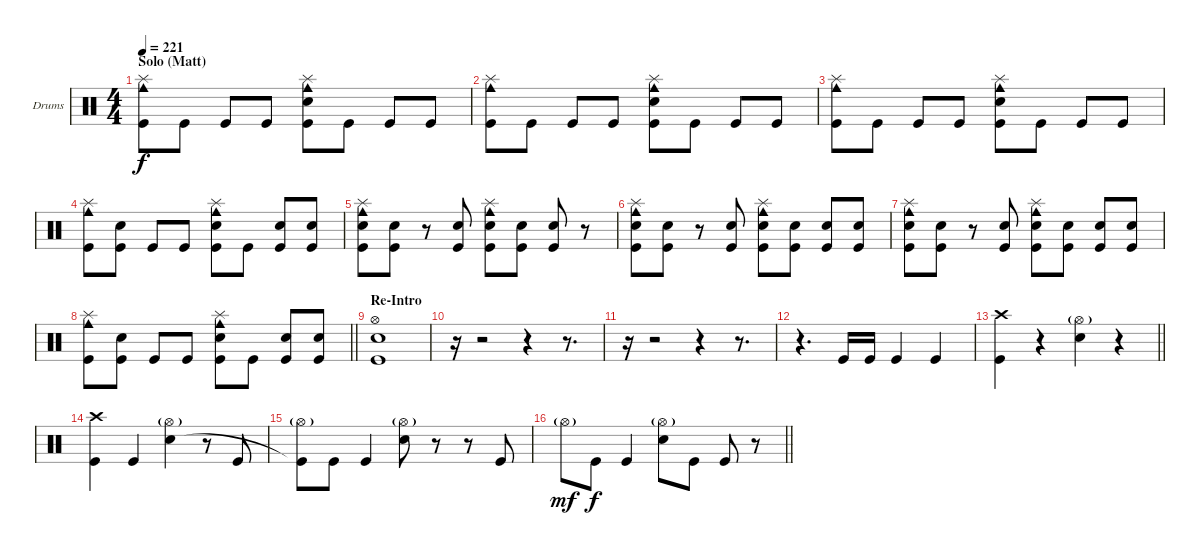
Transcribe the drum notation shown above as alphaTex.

\bracketExtendMode groupsimilarinstruments
\firstSystemTrackNameOrientation horizontal
\otherSystemsTrackNameOrientation horizontal
\track ("Drumkit" "Drums") {instrument percussion}
\staff {score}
\articulation defaults
\ts (4 4)
\section ("" "Solo (Matt)")
\tempo 221
\clef neutral
\ks c
("Splash (hit)" "Cowbell medium (hit)" "Kick (hit)").8{dy f} "Kick (hit)".8 "Kick (hit)".8 "Kick (hit)".8 ("Splash (hit)" "Snare (hit) 2" "Cowbell medium (hit)" "Kick (hit)").8 "Kick (hit)".8 "Kick (hit)".8 "Kick (hit)".8 |
("Splash (hit)" "Cowbell medium (hit)" "Kick (hit)").8 "Kick (hit)".8 "Kick (hit)".8 "Kick (hit)".8 ("Splash (hit)" "Snare (hit) 2" "Cowbell medium (hit)" "Kick (hit)").8 "Kick (hit)".8 "Kick (hit)".8 "Kick (hit)".8 |
("Splash (hit)" "Cowbell medium (hit)" "Kick (hit)").8 "Kick (hit)".8 "Kick (hit)".8 "Kick (hit)".8 ("Splash (hit)" "Snare (hit) 2" "Cowbell medium (hit)" "Kick (hit)").8 "Kick (hit)".8 "Kick (hit)".8 "Kick (hit)".8 |
("Splash (hit)" "Cowbell medium (hit)" "Kick (hit)").8 ("Snare (hit) 2" "Kick (hit)").8 "Kick (hit)".8 "Kick (hit)".8 ("Splash (hit)" "Snare (hit) 2" "Cowbell medium (hit)" "Kick (hit)").8 "Kick (hit)".8 ("Snare (hit) 2" "Kick (hit)").8 ("Snare (hit) 2" "Kick (hit)").8 |
("Splash (hit)" "Snare (hit) 2" "Cowbell medium (hit)" "Kick (hit)").8 ("Snare (hit) 2" "Kick (hit)").8 r.8 ("Snare (hit) 2" "Kick (hit)").8 ("Splash (hit)" "Snare (hit) 2" "Cowbell medium (hit)" "Kick (hit)").8 ("Snare (hit) 2" "Kick (hit)").8 ("Snare (hit) 2" "Kick (hit)").8 r.8 |
("Splash (hit)" "Snare (hit) 2" "Cowbell medium (hit)" "Kick (hit)").8 ("Snare (hit) 2" "Kick (hit)").8 r.8 ("Snare (hit) 2" "Kick (hit)").8 ("Splash (hit)" "Snare (hit) 2" "Cowbell medium (hit)" "Kick (hit)").8 ("Snare (hit) 2" "Kick (hit)").8 ("Snare (hit) 2" "Kick (hit)").8 ("Snare (hit) 2" "Kick (hit)").8 |
("Splash (hit)" "Snare (hit) 2" "Cowbell medium (hit)" "Kick (hit)").8 ("Snare (hit) 2" "Kick (hit)").8 r.8 ("Snare (hit) 2" "Kick (hit)").8 ("Splash (hit)" "Snare (hit) 2" "Cowbell medium (hit)" "Kick (hit)").8 ("Snare (hit) 2" "Kick (hit)").8 ("Snare (hit) 2" "Kick (hit)").8 ("Snare (hit) 2" "Kick (hit)").8 |
\barLineRight lightlight
("Splash (hit)" "Cowbell medium (hit)" "Kick (hit)").8 ("Snare (hit) 2" "Kick (hit)").8 "Kick (hit)".8 "Kick (hit)".8 ("Splash (hit)" "Snare (hit) 2" "Cowbell medium (hit)" "Kick (hit)").8 "Kick (hit)".8 ("Snare (hit) 2" "Kick (hit)").8 ("Snare (hit) 2" "Kick (hit)").8 |
\section ("" "Re-Intro")
("Snare (hit) 2" "Hi-Hat (open)" "Kick (hit)").1 |
r.16 r.2 r.4 r.8{d} |
r.16 r.2 r.4 r.8{d} |
r.4{d} "Kick (hit)".16 "Kick (hit)".16 "Kick (hit)".4 "Kick (hit)".4 |
\barLineRight lightlight
("Crash high (hit)" "Kick (hit)").4 r.4 ("Hi-Hat (open)"{g} "Snare (hit) 2").4 r.4 |
("Crash high (hit)" "Kick (hit)").4 "Kick (hit)".4 ("Hi-Hat (open)"{g} "Snare (hit) 2").4 r.8 "Kick (hit)".8 |
("Hi-Hat (open)"{g} "Kick (hit)"{t}).8 "Kick (hit)".8 "Kick (hit)".4 ("Hi-Hat (open)"{g} "Snare (hit) 2").8 r.8 r.8 "Kick (hit)".8 |
\barLineRight lightlight "Hi-Hat (open)"{g}.8{dy mf} "Kick (hit)".8{dy f} "Kick (hit)".4
("Hi-Hat (open)"{g} "Snare (hit) 2").8 "Kick (hit)".8 "Kick (hit)".8 r.8
